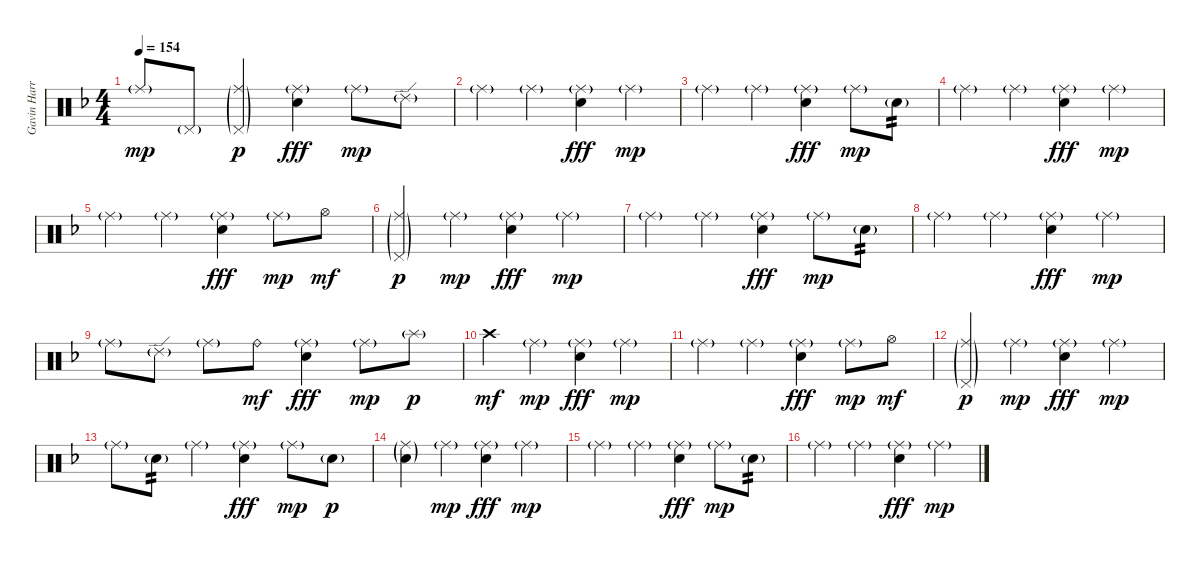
\track ("Gavin Harrison Drums" "Gavin Harr") {instrument percussion}
\staff {score}
\articulation defaults
\ts (4 4)
\tempo 154
\clef neutral
\ks dminor "Ride (middle)"{g}.8{dy mp} "Pedal Hi-Hat (hit)"{g}.8
("Ride (middle)"{g} "Pedal Hi-Hat (hit)"{g}).4{dy p} ("Ride (middle)"{g} "Electric Snare (hit)").4{dy fff} "Ride (middle)"{g}.8{dy mp} "Ride (edge) 2"{g}.8 |
"Ride (middle)"{g}.4 "Ride (middle)"{g}.4 ("Ride (middle)"{g} "Electric Snare (hit)").4{dy fff} "Ride (middle)"{g}.4{dy mp} |
"Ride (middle)"{g}.4 "Ride (middle)"{g}.4 ("Ride (middle)"{g} "Electric Snare (hit)").4{dy fff} "Ride (middle)"{g}.8{dy mp} "Electric Snare (hit)"{g}.8{tp 2} |
"Ride (middle)"{g}.4 "Ride (middle)"{g}.4 ("Ride (middle)"{g} "Electric Snare (hit)").4{dy fff} "Ride (middle)"{g}.4{dy mp} |
"Ride (middle)"{g}.4 "Ride (middle)"{g}.4 ("Ride (middle)"{g} "Electric Snare (hit)").4{dy fff} "Ride (middle)"{g}.8{dy mp} "Hi-Hat (open)".8{dy mf} |
("Ride (middle)"{g} "Pedal Hi-Hat (hit)"{g}).4{dy p} "Ride (middle)"{g}.4{dy mp} ("Ride (middle)"{g} "Electric Snare (hit)").4{dy fff} "Ride (middle)"{g}.4{dy mp} |
"Ride (middle)"{g}.4 "Ride (middle)"{g}.4 ("Ride (middle)"{g} "Electric Snare (hit)").4{dy fff} "Ride (middle)"{g}.8{dy mp} "Electric Snare (hit)"{g}.8{tp 2} |
"Ride (middle)"{g}.4 "Ride (middle)"{g}.4 ("Ride (middle)"{g} "Electric Snare (hit)").4{dy fff} "Ride (middle)"{g}.4{dy mp} |
"Ride (middle)"{g}.8 "Ride (edge) 2"{g}.8 "Ride (middle)"{g}.8 "Ride (bell)".8{dy mf} ("Ride (middle)"{g} "Electric Snare (hit)").4{dy fff} "Ride (middle)"{g}.8{dy mp} "Splash (hit)"{g}.8{dy p} |
"Crash high (hit)".4{dy mf} "Ride (middle)"{g}.4{dy mp} ("Ride (middle)"{g} "Electric Snare (hit)").4{dy fff} "Ride (middle)"{g}.4{dy mp} |
"Ride (middle)"{g}.4 "Ride (middle)"{g}.4 ("Ride (middle)"{g} "Electric Snare (hit)").4{dy fff} "Ride (middle)"{g}.8{dy mp} "Hi-Hat (open)".8{dy mf} |
("Ride (middle)"{g} "Pedal Hi-Hat (hit)"{g}).4{dy p} "Ride (middle)"{g}.4{dy mp} ("Ride (middle)"{g} "Electric Snare (hit)").4{dy fff} "Ride (middle)"{g}.4{dy mp} |
"Ride (middle)"{g}.8 "Electric Snare (hit)"{g}.8{tp 2} "Ride (middle)"{g}.4 ("Ride (middle)"{g} "Electric Snare (hit)").4{dy fff} "Ride (middle)"{g}.8{dy mp} "Electric Snare (hit)"{g}.8{dy p} |
("Ride (middle)"{g} "Electric Snare (hit)"{g}).4 "Ride (middle)"{g}.4{dy mp} ("Ride (middle)"{g} "Electric Snare (hit)").4{dy fff} "Ride (middle)"{g}.4{dy mp} |
"Ride (middle)"{g}.4 "Ride (middle)"{g}.4 ("Ride (middle)"{g} "Electric Snare (hit)").4{dy fff} "Ride (middle)"{g}.8{dy mp} "Electric Snare (hit)"{g}.8{tp 2} |
"Ride (middle)"{g}.4 "Ride (middle)"{g}.4 ("Ride (middle)"{g} "Electric Snare (hit)").4{dy fff} "Ride (middle)"{g}.4{dy mp}
